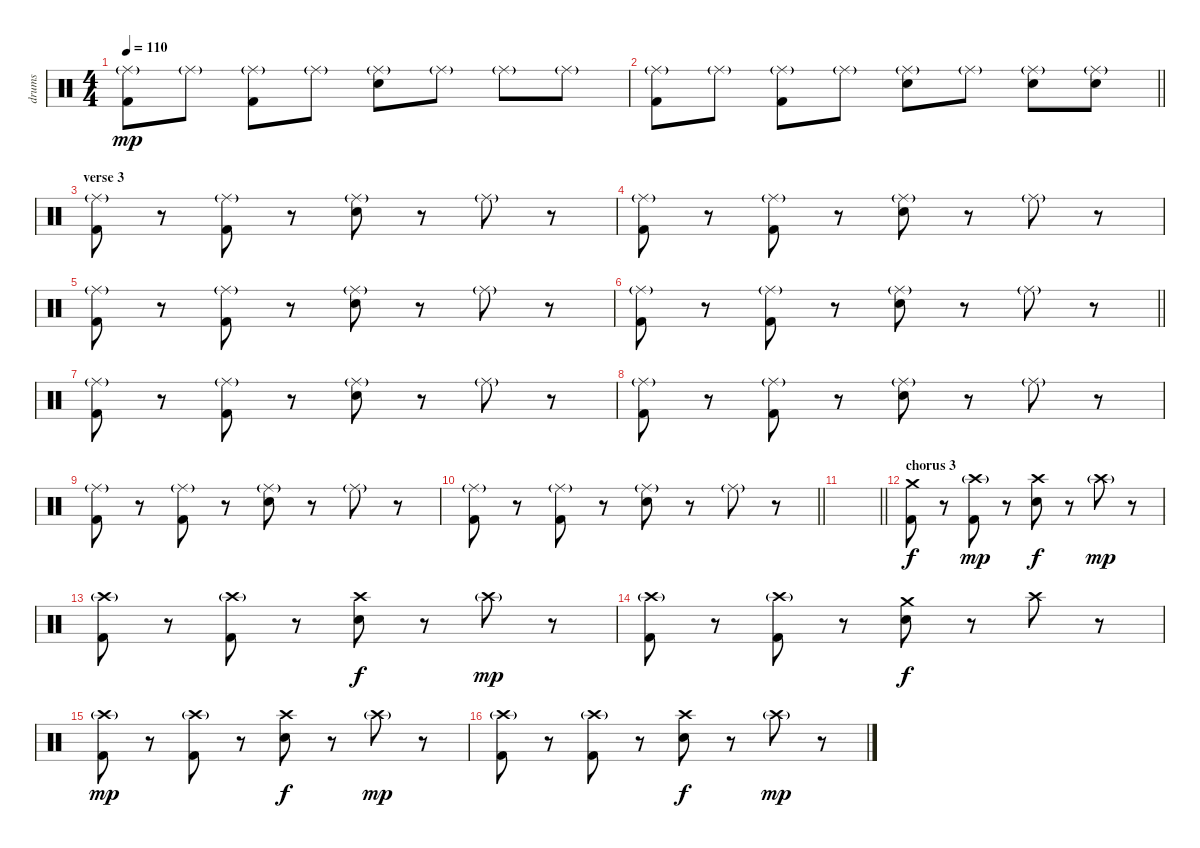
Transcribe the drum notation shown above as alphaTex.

\track ("drums" "drums") {instrument percussion}
\staff {score}
\articulation defaults
\ts (4 4)
\tempo 110
\clef neutral
\ks c
("Kick (hit) 2" "Ride (middle)"{g}).8{dy mp} "Ride (middle)"{g}.8 ("Kick (hit) 2" "Ride (middle)"{g}).8 "Ride (middle)"{g}.8 ("Electric Snare (hit)" "Ride (middle)"{g}).8 "Ride (middle)"{g}.8 "Ride (middle)"{g}.8 "Ride (middle)"{g}.8 |
\barLineRight lightlight
("Kick (hit) 2" "Ride (middle)"{g}).8 "Ride (middle)"{g}.8 ("Kick (hit) 2" "Ride (middle)"{g}).8 "Ride (middle)"{g}.8 ("Electric Snare (hit)" "Ride (middle)"{g}).8 "Ride (middle)"{g}.8 ("Electric Snare (hit)" "Ride (middle)"{g}).8 ("Electric Snare (hit)" "Ride (middle)"{g}).8 |
\section ("" "verse 3")
("Kick (hit) 2" "Ride (middle)"{g}).8{volume 6} r.8 ("Kick (hit) 2" "Ride (middle)"{g}).8 r.8 ("Electric Snare (hit)" "Ride (middle)"{g}).8 r.8 "Ride (middle)"{g}.8 r.8 |
("Kick (hit) 2" "Ride (middle)"{g}).8 r.8 ("Kick (hit) 2" "Ride (middle)"{g}).8 r.8 ("Electric Snare (hit)" "Ride (middle)"{g}).8 r.8 "Ride (middle)"{g}.8 r.8 |
("Kick (hit) 2" "Ride (middle)"{g}).8 r.8 ("Kick (hit) 2" "Ride (middle)"{g}).8 r.8 ("Electric Snare (hit)" "Ride (middle)"{g}).8 r.8 "Ride (middle)"{g}.8 r.8 |
\barLineRight lightlight
("Kick (hit) 2" "Ride (middle)"{g}).8 r.8 ("Kick (hit) 2" "Ride (middle)"{g}).8 r.8 ("Electric Snare (hit)" "Ride (middle)"{g}).8 r.8 "Ride (middle)"{g}.8 r.8 |
("Kick (hit) 2" "Ride (middle)"{g}).8 r.8 ("Kick (hit) 2" "Ride (middle)"{g}).8 r.8 ("Electric Snare (hit)" "Ride (middle)"{g}).8 r.8 "Ride (middle)"{g}.8 r.8 |
("Kick (hit) 2" "Ride (middle)"{g}).8 r.8 ("Kick (hit) 2" "Ride (middle)"{g}).8 r.8 ("Electric Snare (hit)" "Ride (middle)"{g}).8 r.8 "Ride (middle)"{g}.8 r.8 |
("Kick (hit) 2" "Ride (middle)"{g}).8 r.8 ("Kick (hit) 2" "Ride (middle)"{g}).8 r.8 ("Electric Snare (hit)" "Ride (middle)"{g}).8 r.8 "Ride (middle)"{g}.8 r.8 |
\barLineRight lightlight
("Kick (hit) 2" "Ride (middle)"{g}).8 r.8 ("Kick (hit) 2" "Ride (middle)"{g}).8 r.8 ("Electric Snare (hit)" "Ride (middle)"{g}).8 r.8 "Ride (middle)"{g}.8 r.8 |
\barLineRight lightlight
|
\section ("" "chorus 3")
("Kick (hit) 2" "Crash medium (hit)").8{dy f volume 16} r.8 ("Kick (hit) 2" "Crash high (hit)"{g}).8{dy mp} r.8 ("Electric Snare (hit)" "Crash high (hit)").8{dy f} r.8 "Crash high (hit)"{g}.8{dy mp} r.8 |
("Kick (hit) 2" "Crash high (hit)"{g}).8 r.8 ("Kick (hit) 2" "Crash high (hit)"{g}).8 r.8 ("Electric Snare (hit)" "Crash high (hit)").8{dy f} r.8 "Crash high (hit)"{g}.8{dy mp} r.8 |
("Kick (hit) 2" "Crash high (hit)"{g}).8 r.8 ("Kick (hit) 2" "Crash high (hit)"{g}).8 r.8 ("Electric Snare (hit)" "Crash medium (hit)").8{dy f} r.8 "Crash high (hit)".8 r.8 |
("Kick (hit) 2" "Crash high (hit)"{g}).8{dy mp} r.8 ("Kick (hit) 2" "Crash high (hit)"{g}).8 r.8 ("Electric Snare (hit)" "Crash high (hit)").8{dy f} r.8 "Crash high (hit)"{g}.8{dy mp} r.8 |
("Kick (hit) 2" "Crash high (hit)"{g}).8 r.8 ("Kick (hit) 2" "Crash high (hit)"{g}).8 r.8 ("Electric Snare (hit)" "Crash high (hit)").8{dy f} r.8 "Crash high (hit)"{g}.8{dy mp} r.8
